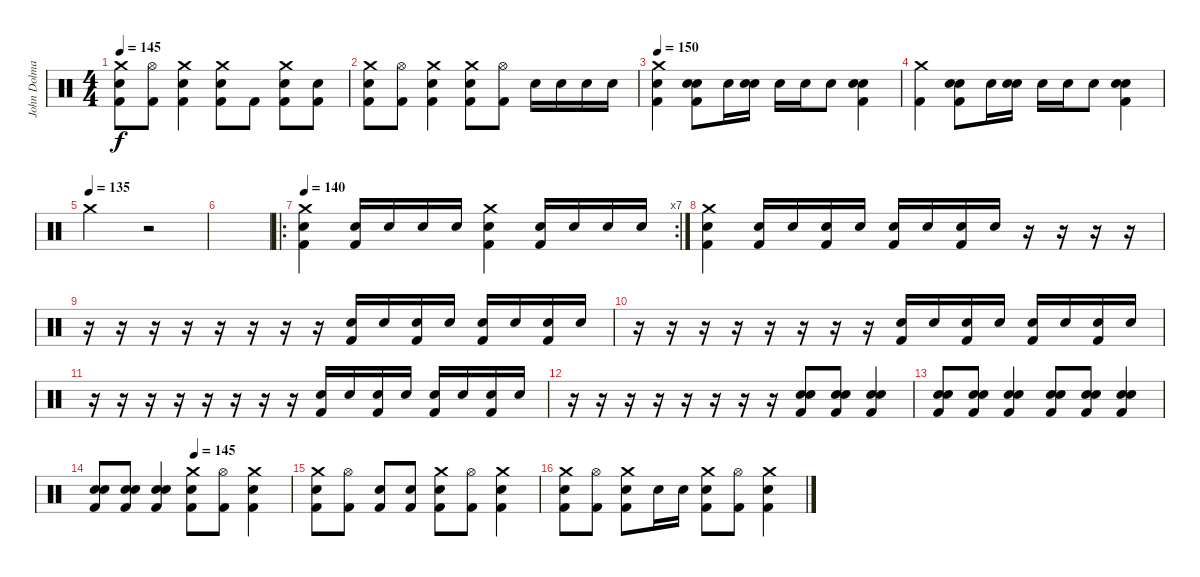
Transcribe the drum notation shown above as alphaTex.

\track ("John Dolmayan" "John Dolma") {instrument percussion}
\staff {score}
\articulation defaults
\ts (4 4)
\tempo 145
\clef neutral
\ks c
("Crash medium (hit)" "Electric Snare (hit)" "Kick (hit) 2").8{dy f} ("Hi-Hat (open)" "Kick (hit) 2").8 ("Crash medium (hit)" "Electric Snare (hit)" "Kick (hit) 2").4 ("Crash medium (hit)" "Electric Snare (hit)" "Kick (hit) 2").8 "Kick (hit) 2".8 ("Crash medium (hit)" "Snare (hit) 2" "Kick (hit) 2").8 ("Electric Snare (hit)" "Kick (hit) 2").8 |
("Crash medium (hit)" "Electric Snare (hit)" "Kick (hit) 2").8 ("Hi-Hat (open)" "Kick (hit) 2").8 ("Crash medium (hit)" "Electric Snare (hit)" "Kick (hit) 2").4 ("Crash medium (hit)" "Electric Snare (hit)" "Kick (hit) 2").8 ("Hi-Hat (open)" "Kick (hit) 2").8 "Electric Snare (hit)".16 "Electric Snare (hit)".16 "Electric Snare (hit)".16 "Electric Snare (hit)".16 |
\tempo 150
("Crash medium (hit)" "Electric Snare (hit)" "Kick (hit) 2").4 ("Snare (hit) 2" "Electric Snare (hit)" "Kick (hit) 2").8 "Electric Snare (hit)".16 ("Snare (hit) 2" "Electric Snare (hit)").16 "Electric Snare (hit)".16 "Electric Snare (hit)".16 "Electric Snare (hit)".8 ("Snare (hit) 2" "Electric Snare (hit)" "Kick (hit) 2").4 |
("Crash medium (hit)" "Kick (hit) 2").4 ("Snare (hit) 2" "Electric Snare (hit)" "Kick (hit) 2").8 "Electric Snare (hit)".16 ("Snare (hit) 2" "Electric Snare (hit)").16 "Electric Snare (hit)".16 "Electric Snare (hit)".16 "Electric Snare (hit)".8 ("Snare (hit) 2" "Electric Snare (hit)" "Kick (hit) 2").4 |
\tempo (135)
"Crash medium (hit)".2 r.2 |
|
\ro
\rc 7
\tempo 140
("Crash medium (hit)" "Electric Snare (hit)" "Kick (hit) 2").4 ("Electric Snare (hit)" "Kick (hit) 2").16 "Electric Snare (hit)".16 "Electric Snare (hit)".16 "Electric Snare (hit)".16 ("Crash medium (hit)" "Electric Snare (hit)" "Kick (hit) 2").4 ("Electric Snare (hit)" "Kick (hit) 2").16 "Electric Snare (hit)".16 "Electric Snare (hit)".16 "Electric Snare (hit)".16 |
("Crash medium (hit)" "Snare (hit) 2" "Kick (hit) 2").4 ("Electric Snare (hit)" "Kick (hit) 2").16 "Electric Snare (hit)".16 ("Electric Snare (hit)" "Kick (hit) 2").16 "Electric Snare (hit)".16 ("Electric Snare (hit)" "Kick (hit) 2").16 "Electric Snare (hit)".16 ("Electric Snare (hit)" "Kick (hit) 2").16 "Snare (hit) 2".16 r.16 r.16 r.16 r.16 |
r.16 r.16 r.16 r.16 r.16 r.16 r.16 r.16 ("Electric Snare (hit)" "Kick (hit) 2").16 "Electric Snare (hit)".16 ("Electric Snare (hit)" "Kick (hit) 2").16 "Electric Snare (hit)".16 ("Electric Snare (hit)" "Kick (hit) 2").16 "Electric Snare (hit)".16 ("Electric Snare (hit)" "Kick (hit) 2").16 "Snare (hit) 2".16 |
r.16 r.16 r.16 r.16 r.16 r.16 r.16 r.16 ("Electric Snare (hit)" "Kick (hit) 2").16 "Electric Snare (hit)".16 ("Electric Snare (hit)" "Kick (hit) 2").16 "Electric Snare (hit)".16 ("Electric Snare (hit)" "Kick (hit) 2").16 "Electric Snare (hit)".16 ("Electric Snare (hit)" "Kick (hit) 2").16 "Snare (hit) 2".16 |
r.16 r.16 r.16 r.16 r.16 r.16 r.16 r.16 ("Electric Snare (hit)" "Kick (hit) 2").16 "Electric Snare (hit)".16 ("Electric Snare (hit)" "Kick (hit) 2").16 "Electric Snare (hit)".16 ("Electric Snare (hit)" "Kick (hit) 2").16 "Electric Snare (hit)".16 ("Electric Snare (hit)" "Kick (hit) 2").16 "Snare (hit) 2".16 |
r.16 r.16 r.16 r.16 r.16 r.16 r.16 r.16 ("Electric Snare (hit)" "Electric Snare (hit)" "Kick (hit) 2").8 ("Electric Snare (hit)" "Electric Snare (hit)" "Kick (hit) 2").8 ("Electric Snare (hit)" "Electric Snare (hit)" "Kick (hit) 2").4 |
("Electric Snare (hit)" "Electric Snare (hit)" "Kick (hit) 2").8 ("Electric Snare (hit)" "Electric Snare (hit)" "Kick (hit) 2").8 ("Electric Snare (hit)" "Electric Snare (hit)" "Kick (hit) 2").4 ("Electric Snare (hit)" "Electric Snare (hit)" "Kick (hit) 2").8 ("Electric Snare (hit)" "Electric Snare (hit)" "Kick (hit) 2").8 ("Electric Snare (hit)" "Electric Snare (hit)" "Kick (hit) 2").4 |
\tempo (145 0.5)
("Electric Snare (hit)" "Electric Snare (hit)" "Kick (hit) 2").8 ("Electric Snare (hit)" "Electric Snare (hit)" "Kick (hit) 2").8 ("Electric Snare (hit)" "Electric Snare (hit)" "Kick (hit) 2").4 ("Crash medium (hit)" "Electric Snare (hit)" "Kick (hit) 2").8 ("Hi-Hat (open)" "Kick (hit) 2").8 ("Crash medium (hit)" "Electric Snare (hit)" "Kick (hit) 2").4 |
("Crash medium (hit)" "Electric Snare (hit)" "Kick (hit) 2").8 ("Hi-Hat (open)" "Kick (hit) 2").8 ("Snare (hit) 2" "Kick (hit) 2").8 ("Electric Snare (hit)" "Kick (hit) 2").8 ("Crash medium (hit)" "Electric Snare (hit)" "Kick (hit) 2").8 ("Hi-Hat (open)" "Kick (hit) 2").8 ("Crash medium (hit)" "Electric Snare (hit)" "Kick (hit) 2").4 |
("Crash medium (hit)" "Electric Snare (hit)" "Kick (hit) 2").8 ("Hi-Hat (open)" "Kick (hit) 2").8 ("Crash medium (hit)" "Electric Snare (hit)" "Kick (hit) 2").8 "Electric Snare (hit)".16 "Electric Snare (hit)".16 ("Crash medium (hit)" "Electric Snare (hit)" "Kick (hit) 2").8 ("Hi-Hat (open)" "Kick (hit) 2").8 ("Crash medium (hit)" "Electric Snare (hit)" "Kick (hit) 2").4
